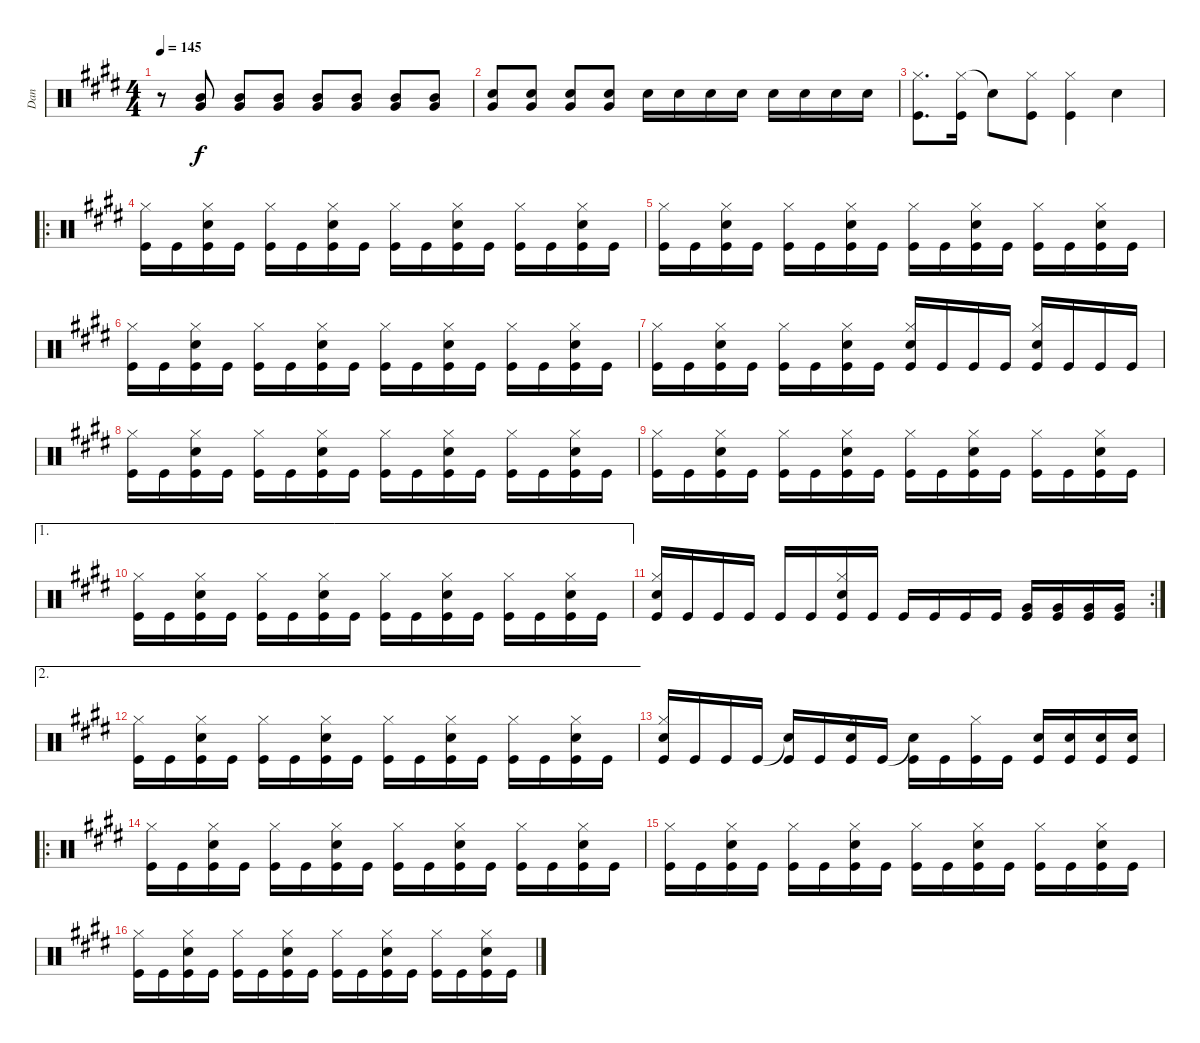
\track ("Dan" "Dan") {instrument percussion}
\staff {score}
\articulation defaults
\ts (4 4)
\tempo 145
\clef neutral
\ks e
r.8{dy f} ("Mid Tom (hit)" "Very Low Tom (hit)").8 ("Mid Tom (hit)" "Very Low Tom (hit)").8 ("Mid Tom (hit)" "Very Low Tom (hit)").8 ("Mid Tom (hit)" "Very Low Tom (hit)").8 ("Mid Tom (hit)" "Very Low Tom (hit)").8 ("Mid Tom (hit)" "Very Low Tom (hit)").8 ("Mid Tom (hit)" "Very Low Tom (hit)").8 |
("Snare (hit) 2" "Very Low Tom (hit)").8 ("Snare (hit) 2" "Very Low Tom (hit)").8 ("Snare (hit) 2" "Very Low Tom (hit)").8 ("Snare (hit) 2" "Very Low Tom (hit)").8 "Snare (hit) 2".16 "Snare (hit) 2".16 "Snare (hit) 2".16 "Snare (hit) 2".16 "Snare (hit) 2".16 "Snare (hit) 2".16 "Snare (hit) 2".16 "Snare (hit) 2".16 |
("Hi-Hat (closed)" "Kick (hit)").8{d} ("Hi-Hat (closed)" "Kick (hit)").16 "Snare (hit)"{t}.8 ("Hi-Hat (closed)" "Kick (hit)").8 ("Hi-Hat (closed)" "Kick (hit)").4 "Snare (hit) 2".4 |
\ro
("Hi-Hat (closed)" "Kick (hit)").16 "Kick (hit)".16 ("Hi-Hat (closed)" "Snare (hit) 2" "Kick (hit)").16 "Kick (hit)".16 ("Hi-Hat (closed)" "Kick (hit)").16 "Kick (hit)".16 ("Hi-Hat (closed)" "Snare (hit) 2" "Kick (hit)").16 "Kick (hit)".16 ("Hi-Hat (closed)" "Kick (hit)").16 "Kick (hit)".16 ("Hi-Hat (closed)" "Snare (hit) 2" "Kick (hit)").16 "Kick (hit)".16 ("Hi-Hat (closed)" "Kick (hit)").16 "Kick (hit)".16 ("Hi-Hat (closed)" "Snare (hit) 2" "Kick (hit)").16 "Kick (hit)".16 |
("Hi-Hat (closed)" "Kick (hit)").16 "Kick (hit)".16 ("Hi-Hat (closed)" "Snare (hit) 2" "Kick (hit)").16 "Kick (hit)".16 ("Hi-Hat (closed)" "Kick (hit)").16 "Kick (hit)".16 ("Hi-Hat (closed)" "Snare (hit) 2" "Kick (hit)").16 "Kick (hit)".16 ("Hi-Hat (closed)" "Kick (hit)").16 "Kick (hit)".16 ("Hi-Hat (closed)" "Snare (hit) 2" "Kick (hit)").16 "Kick (hit)".16 ("Hi-Hat (closed)" "Kick (hit)").16 "Kick (hit)".16 ("Hi-Hat (closed)" "Snare (hit) 2" "Kick (hit)").16 "Kick (hit)".16 |
("Hi-Hat (closed)" "Kick (hit)").16 "Kick (hit)".16 ("Hi-Hat (closed)" "Snare (hit) 2" "Kick (hit)").16 "Kick (hit)".16 ("Hi-Hat (closed)" "Kick (hit)").16 "Kick (hit)".16 ("Hi-Hat (closed)" "Snare (hit) 2" "Kick (hit)").16 "Kick (hit)".16 ("Hi-Hat (closed)" "Kick (hit)").16 "Kick (hit)".16 ("Hi-Hat (closed)" "Snare (hit) 2" "Kick (hit)").16 "Kick (hit)".16 ("Hi-Hat (closed)" "Kick (hit)").16 "Kick (hit)".16 ("Hi-Hat (closed)" "Snare (hit) 2" "Kick (hit)").16 "Kick (hit)".16 |
("Hi-Hat (closed)" "Kick (hit)").16 "Kick (hit)".16 ("Hi-Hat (closed)" "Snare (hit) 2" "Kick (hit)").16 "Kick (hit)".16 ("Hi-Hat (closed)" "Kick (hit)").16 "Kick (hit)".16 ("Hi-Hat (closed)" "Snare (hit) 2" "Kick (hit)").16 "Kick (hit)".16 ("Hi-Hat (closed)" "Snare (hit) 2" "Kick (hit)").16 "Kick (hit)".16 "Kick (hit)".16 "Kick (hit)".16 ("Hi-Hat (closed)" "Snare (hit) 2" "Kick (hit)").16 "Kick (hit)".16 "Kick (hit)".16 "Kick (hit)".16 |
("Hi-Hat (closed)" "Kick (hit)").16 "Kick (hit)".16 ("Hi-Hat (closed)" "Snare (hit) 2" "Kick (hit)").16 "Kick (hit)".16 ("Hi-Hat (closed)" "Kick (hit)").16 "Kick (hit)".16 ("Hi-Hat (closed)" "Snare (hit) 2" "Kick (hit)").16 "Kick (hit)".16 ("Hi-Hat (closed)" "Kick (hit)").16 "Kick (hit)".16 ("Hi-Hat (closed)" "Snare (hit) 2" "Kick (hit)").16 "Kick (hit)".16 ("Hi-Hat (closed)" "Kick (hit)").16 "Kick (hit)".16 ("Hi-Hat (closed)" "Snare (hit) 2" "Kick (hit)").16 "Kick (hit)".16 |
("Hi-Hat (closed)" "Kick (hit)").16 "Kick (hit)".16 ("Hi-Hat (closed)" "Snare (hit) 2" "Kick (hit)").16 "Kick (hit)".16 ("Hi-Hat (closed)" "Kick (hit)").16 "Kick (hit)".16 ("Hi-Hat (closed)" "Snare (hit) 2" "Kick (hit)").16 "Kick (hit)".16 ("Hi-Hat (closed)" "Kick (hit)").16 "Kick (hit)".16 ("Hi-Hat (closed)" "Snare (hit) 2" "Kick (hit)").16 "Kick (hit)".16 ("Hi-Hat (closed)" "Kick (hit)").16 "Kick (hit)".16 ("Hi-Hat (closed)" "Snare (hit) 2" "Kick (hit)").16 "Kick (hit)".16 |
\ae 1
("Hi-Hat (closed)" "Kick (hit)").16 "Kick (hit)".16 ("Hi-Hat (closed)" "Snare (hit) 2" "Kick (hit)").16 "Kick (hit)".16 ("Hi-Hat (closed)" "Kick (hit)").16 "Kick (hit)".16 ("Hi-Hat (closed)" "Snare (hit) 2" "Kick (hit)").16 "Kick (hit)".16 ("Hi-Hat (closed)" "Kick (hit)").16 "Kick (hit)".16 ("Hi-Hat (closed)" "Snare (hit) 2" "Kick (hit)").16 "Kick (hit)".16 ("Hi-Hat (closed)" "Kick (hit)").16 "Kick (hit)".16 ("Hi-Hat (closed)" "Snare (hit) 2" "Kick (hit)").16 "Kick (hit)".16 |
\rc 2
("Hi-Hat (closed)" "Snare (hit) 2" "Kick (hit)").16 "Kick (hit)".16 "Kick (hit)".16 "Kick (hit)".16 "Kick (hit)".16 "Kick (hit)".16 ("Hi-Hat (closed)" "Snare (hit) 2" "Kick (hit)").16 "Kick (hit)".16 "Kick (hit)".16 "Kick (hit)".16 "Kick (hit)".16 "Kick (hit)".16 ("Very Low Tom (hit)" "Kick (hit)").16 ("Very Low Tom (hit)" "Kick (hit)").16 ("Very Low Tom (hit)" "Kick (hit)").16 ("Very Low Tom (hit)" "Kick (hit)").16 |
\ae 2
("Hi-Hat (closed)" "Kick (hit)").16 "Kick (hit)".16 ("Hi-Hat (closed)" "Snare (hit) 2" "Kick (hit)").16 "Kick (hit)".16 ("Hi-Hat (closed)" "Kick (hit)").16 "Kick (hit)".16 ("Hi-Hat (closed)" "Snare (hit) 2" "Kick (hit)").16 "Kick (hit)".16 ("Hi-Hat (closed)" "Kick (hit)").16 "Kick (hit)".16 ("Hi-Hat (closed)" "Snare (hit) 2" "Kick (hit)").16 "Kick (hit)".16 ("Hi-Hat (closed)" "Kick (hit)").16 "Kick (hit)".16 ("Hi-Hat (closed)" "Snare (hit) 2" "Kick (hit)").16 "Kick (hit)".16 |
("Hi-Hat (closed)" "Snare (hit) 2" "Kick (hit)").16 "Kick (hit)".16 "Kick (hit)".16 "Kick (hit)".16 ("Snare (hit)"{t} "Kick (hit)").16 "Kick (hit)".16 ("Hi-Hat (closed)" "Snare (hit) 2" "Kick (hit)").16 "Kick (hit)".16 ("Snare (hit)"{t} "Kick (hit)").16 "Kick (hit)".16 ("Hi-Hat (closed)" "Kick (hit)").16 "Kick (hit)".16 ("Snare (hit) 2" "Kick (hit)").16 ("Snare (hit) 2" "Kick (hit)").16 ("Snare (hit) 2" "Kick (hit)").16 ("Snare (hit) 2" "Kick (hit)").16 |
\ro
("Hi-Hat (closed)" "Kick (hit)").16 "Kick (hit)".16 ("Hi-Hat (closed)" "Snare (hit) 2" "Kick (hit)").16 "Kick (hit)".16 ("Hi-Hat (closed)" "Kick (hit)").16 "Kick (hit)".16 ("Hi-Hat (closed)" "Snare (hit) 2" "Kick (hit)").16 "Kick (hit)".16 ("Hi-Hat (closed)" "Kick (hit)").16 "Kick (hit)".16 ("Hi-Hat (closed)" "Snare (hit) 2" "Kick (hit)").16 "Kick (hit)".16 ("Hi-Hat (closed)" "Kick (hit)").16 "Kick (hit)".16 ("Hi-Hat (closed)" "Snare (hit) 2" "Kick (hit)").16 "Kick (hit)".16 |
("Hi-Hat (closed)" "Kick (hit)").16 "Kick (hit)".16 ("Hi-Hat (closed)" "Snare (hit) 2" "Kick (hit)").16 "Kick (hit)".16 ("Hi-Hat (closed)" "Kick (hit)").16 "Kick (hit)".16 ("Hi-Hat (closed)" "Snare (hit) 2" "Kick (hit)").16 "Kick (hit)".16 ("Hi-Hat (closed)" "Kick (hit)").16 "Kick (hit)".16 ("Hi-Hat (closed)" "Snare (hit) 2" "Kick (hit)").16 "Kick (hit)".16 ("Hi-Hat (closed)" "Kick (hit)").16 "Kick (hit)".16 ("Hi-Hat (closed)" "Snare (hit) 2" "Kick (hit)").16 "Kick (hit)".16 |
("Hi-Hat (closed)" "Kick (hit)").16 "Kick (hit)".16 ("Hi-Hat (closed)" "Snare (hit) 2" "Kick (hit)").16 "Kick (hit)".16 ("Hi-Hat (closed)" "Kick (hit)").16 "Kick (hit)".16 ("Hi-Hat (closed)" "Snare (hit) 2" "Kick (hit)").16 "Kick (hit)".16 ("Hi-Hat (closed)" "Kick (hit)").16 "Kick (hit)".16 ("Hi-Hat (closed)" "Snare (hit) 2" "Kick (hit)").16 "Kick (hit)".16 ("Hi-Hat (closed)" "Kick (hit)").16 "Kick (hit)".16 ("Hi-Hat (closed)" "Snare (hit) 2" "Kick (hit)").16 "Kick (hit)".16
